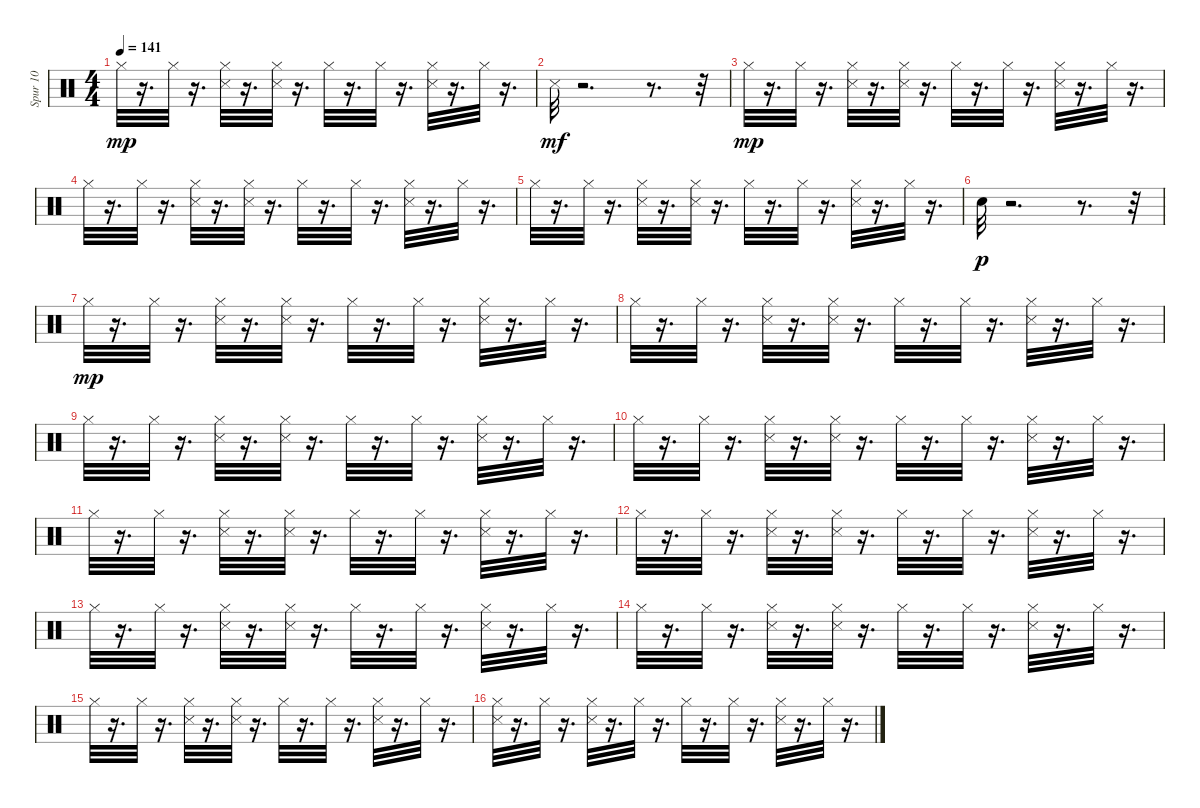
\track ("Spur 10" "Spur 10") {instrument percussion}
\staff {score}
\articulation defaults
\ts (4 4)
\tempo 141
\clef neutral
\ks c "Hi-Hat (closed)".32{dy mp}
r.16{d} "Hi-Hat (closed)".32 r.16{d} ("Snare (side stick) 3" "Hi-Hat (closed)").32 r.16{d} ("Snare (side stick) 3" "Hi-Hat (closed)").32 r.16{d} "Hi-Hat (closed)".32 r.16{d} "Hi-Hat (closed)".32 r.16{d} ("Snare (side stick) 3" "Hi-Hat (closed)").32 r.16{d} "Hi-Hat (closed)".32 r.16{d} |
"Snare (side stick) 3".32{dy mf} r.2{d} r.8{d} r.32 |
"Hi-Hat (closed)".32{dy mp} r.16{d} "Hi-Hat (closed)".32 r.16{d} ("Snare (side stick) 3" "Hi-Hat (closed)").32 r.16{d} ("Snare (side stick) 3" "Hi-Hat (closed)").32 r.16{d} "Hi-Hat (closed)".32 r.16{d} "Hi-Hat (closed)".32 r.16{d} ("Snare (side stick) 3" "Hi-Hat (closed)").32 r.16{d} "Hi-Hat (closed)".32 r.16{d} |
"Hi-Hat (closed)".32 r.16{d} "Hi-Hat (closed)".32 r.16{d} ("Snare (side stick) 3" "Hi-Hat (closed)").32 r.16{d} ("Snare (side stick) 3" "Hi-Hat (closed)").32 r.16{d} "Hi-Hat (closed)".32 r.16{d} "Hi-Hat (closed)".32 r.16{d} ("Snare (side stick) 3" "Hi-Hat (closed)").32 r.16{d} "Hi-Hat (closed)".32 r.16{d} |
"Hi-Hat (closed)".32 r.16{d} "Hi-Hat (closed)".32 r.16{d} ("Snare (side stick) 3" "Hi-Hat (closed)").32 r.16{d} ("Snare (side stick) 3" "Hi-Hat (closed)").32 r.16{d} "Hi-Hat (closed)".32 r.16{d} "Hi-Hat (closed)".32 r.16{d} ("Snare (side stick) 3" "Hi-Hat (closed)").32 r.16{d} "Hi-Hat (closed)".32 r.16{d} |
"Snare (hit) 2".32{dy p} r.2{d} r.8{d} r.32 |
"Hi-Hat (closed)".32{dy mp} r.16{d} "Hi-Hat (closed)".32 r.16{d} ("Snare (side stick) 3" "Hi-Hat (closed)").32 r.16{d} ("Snare (side stick) 3" "Hi-Hat (closed)").32 r.16{d} "Hi-Hat (closed)".32 r.16{d} "Hi-Hat (closed)".32 r.16{d} ("Snare (side stick) 3" "Hi-Hat (closed)").32 r.16{d} "Hi-Hat (closed)".32 r.16{d} |
"Hi-Hat (closed)".32 r.16{d} "Hi-Hat (closed)".32 r.16{d} ("Snare (side stick) 3" "Hi-Hat (closed)").32 r.16{d} ("Snare (side stick) 3" "Hi-Hat (closed)").32 r.16{d} "Hi-Hat (closed)".32 r.16{d} "Hi-Hat (closed)".32 r.16{d} ("Snare (side stick) 3" "Hi-Hat (closed)").32 r.16{d} "Hi-Hat (closed)".32 r.16{d} |
"Hi-Hat (closed)".32 r.16{d} "Hi-Hat (closed)".32 r.16{d} ("Snare (side stick) 3" "Hi-Hat (closed)").32 r.16{d} ("Snare (side stick) 3" "Hi-Hat (closed)").32 r.16{d} "Hi-Hat (closed)".32 r.16{d} "Hi-Hat (closed)".32 r.16{d} ("Snare (side stick) 3" "Hi-Hat (closed)").32 r.16{d} "Hi-Hat (closed)".32 r.16{d} |
"Hi-Hat (closed)".32 r.16{d} "Hi-Hat (closed)".32 r.16{d} ("Snare (side stick) 3" "Hi-Hat (closed)").32 r.16{d} ("Snare (side stick) 3" "Hi-Hat (closed)").32 r.16{d} "Hi-Hat (closed)".32 r.16{d} "Hi-Hat (closed)".32 r.16{d} ("Snare (side stick) 3" "Hi-Hat (closed)").32 r.16{d} "Hi-Hat (closed)".32 r.16{d} |
"Hi-Hat (closed)".32 r.16{d} "Hi-Hat (closed)".32 r.16{d} ("Snare (side stick) 3" "Hi-Hat (closed)").32 r.16{d} ("Snare (side stick) 3" "Hi-Hat (closed)").32 r.16{d} "Hi-Hat (closed)".32 r.16{d} "Hi-Hat (closed)".32 r.16{d} ("Snare (side stick) 3" "Hi-Hat (closed)").32 r.16{d} "Hi-Hat (closed)".32 r.16{d} |
"Hi-Hat (closed)".32 r.16{d} "Hi-Hat (closed)".32 r.16{d} ("Snare (side stick) 3" "Hi-Hat (closed)").32 r.16{d} ("Snare (side stick) 3" "Hi-Hat (closed)").32 r.16{d} "Hi-Hat (closed)".32 r.16{d} "Hi-Hat (closed)".32 r.16{d} ("Snare (side stick) 3" "Hi-Hat (closed)").32 r.16{d} "Hi-Hat (closed)".32 r.16{d} |
"Hi-Hat (closed)".32 r.16{d} "Hi-Hat (closed)".32 r.16{d} ("Snare (side stick) 3" "Hi-Hat (closed)").32 r.16{d} ("Snare (side stick) 3" "Hi-Hat (closed)").32 r.16{d} "Hi-Hat (closed)".32 r.16{d} "Hi-Hat (closed)".32 r.16{d} ("Snare (side stick) 3" "Hi-Hat (closed)").32 r.16{d} "Hi-Hat (closed)".32 r.16{d} |
"Hi-Hat (closed)".32 r.16{d} "Hi-Hat (closed)".32 r.16{d} ("Snare (side stick) 3" "Hi-Hat (closed)").32 r.16{d} ("Snare (side stick) 3" "Hi-Hat (closed)").32 r.16{d} "Hi-Hat (closed)".32 r.16{d} "Hi-Hat (closed)".32 r.16{d} ("Snare (side stick) 3" "Hi-Hat (closed)").32 r.16{d} "Hi-Hat (closed)".32 r.16{d} |
"Hi-Hat (closed)".32 r.16{d} "Hi-Hat (closed)".32 r.16{d} ("Snare (side stick) 3" "Hi-Hat (closed)").32 r.16{d} ("Snare (side stick) 3" "Hi-Hat (closed)").32 r.16{d} "Hi-Hat (closed)".32 r.16{d} "Hi-Hat (closed)".32 r.16{d} ("Snare (side stick) 3" "Hi-Hat (closed)").32 r.16{d} "Hi-Hat (closed)".32 r.16{d} |
("Snare (side stick) 3" "Hi-Hat (closed)").32 r.16{d} "Hi-Hat (closed)".32 r.16{d} ("Snare (side stick) 3" "Hi-Hat (closed)").32 r.16{d} "Hi-Hat (closed)".32 r.16{d} "Hi-Hat (closed)".32 r.16{d} "Hi-Hat (closed)".32 r.16{d} ("Snare (side stick) 3" "Hi-Hat (closed)").32 r.16{d} "Hi-Hat (closed)".32 r.16{d}
